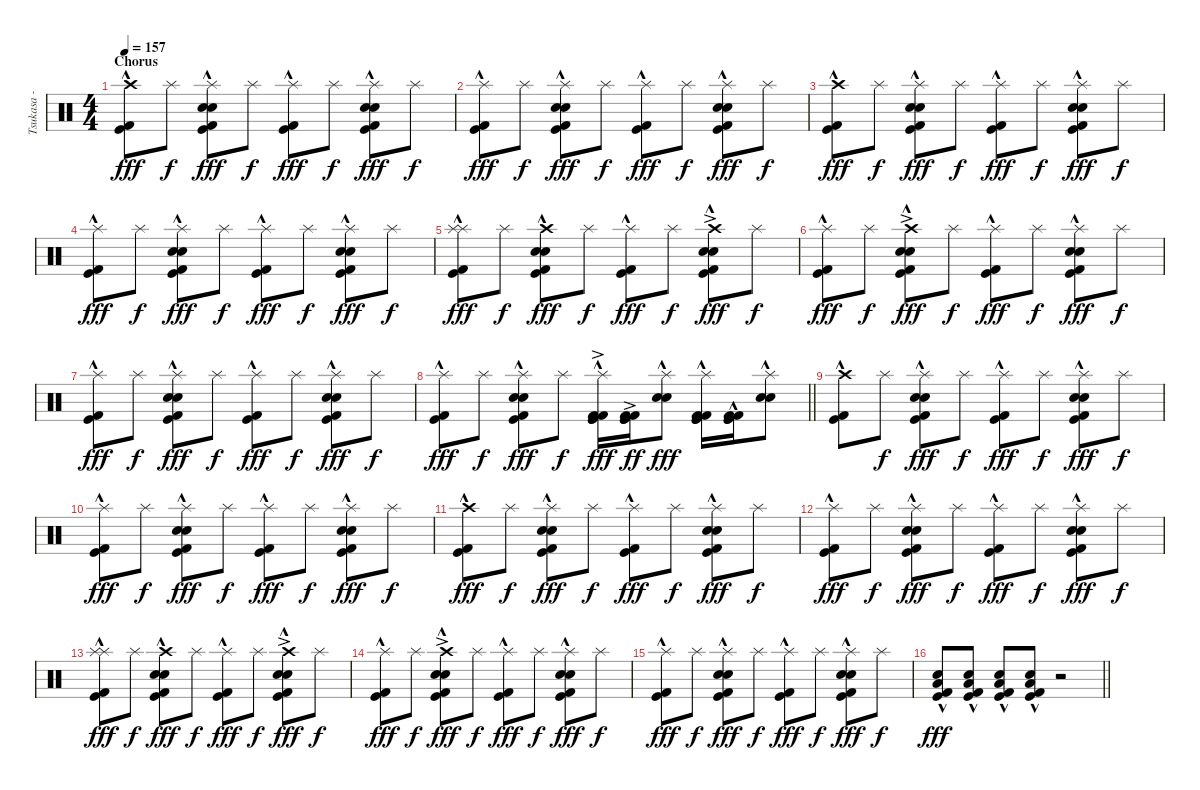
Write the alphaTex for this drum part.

\track ("Tsukasa - Drums" "Tsukasa - ") {instrument percussion}
\staff {score}
\articulation defaults
\ts (4 4)
\section ("" "Chorus")
\tempo 157
\clef neutral
\ks c
("Crash high (hit)" "Kick (hit)"{hac} "Kick (hit) 2"{hac}).8{dy fff} "Splash (hit)".8{dy f} ("Splash (hit)"{hac} "Electric Snare (hit)"{hac} "Snare (hit) 2" "Kick (hit)"{hac} "Kick (hit) 2"{hac}).8{dy fff} "Splash (hit)".8{dy f} ("Splash (hit)"{hac} "Kick (hit)"{hac} "Kick (hit) 2"{hac}).8{dy fff} "Splash (hit)".8{dy f} ("Splash (hit)"{hac} "Electric Snare (hit)"{hac} "Snare (hit) 2" "Kick (hit)"{hac} "Kick (hit) 2"{hac}).8{dy fff} "Splash (hit)".8{dy f} |
("Splash (hit)"{hac} "Kick (hit)"{hac} "Kick (hit) 2"{hac}).8{dy fff} "Splash (hit)".8{dy f} ("Splash (hit)"{hac} "Electric Snare (hit)"{hac} "Snare (hit) 2" "Kick (hit)"{hac} "Kick (hit) 2"{hac}).8{dy fff} "Splash (hit)".8{dy f} ("Splash (hit)"{hac} "Kick (hit)"{hac} "Kick (hit) 2"{hac}).8{dy fff} "Splash (hit)".8{dy f} ("Splash (hit)"{hac} "Electric Snare (hit)"{hac} "Snare (hit) 2" "Kick (hit)"{hac} "Kick (hit) 2"{hac}).8{dy fff} "Splash (hit)".8{dy f} |
("Crash high (hit)" "Kick (hit)"{hac} "Kick (hit) 2"{hac}).8{dy fff} "Splash (hit)".8{dy f} ("Splash (hit)"{hac} "Electric Snare (hit)"{hac} "Snare (hit) 2" "Kick (hit)"{hac} "Kick (hit) 2"{hac}).8{dy fff} "Splash (hit)".8{dy f} ("Splash (hit)"{hac} "Kick (hit)"{hac} "Kick (hit) 2"{hac}).8{dy fff} "Splash (hit)".8{dy f} ("Splash (hit)"{hac} "Electric Snare (hit)"{hac} "Snare (hit) 2" "Kick (hit)"{hac} "Kick (hit) 2"{hac}).8{dy fff} "Splash (hit)".8{dy f} |
("Splash (hit)"{hac} "Kick (hit)"{hac} "Kick (hit) 2"{hac}).8{dy fff} "Splash (hit)".8{dy f} ("Splash (hit)"{hac} "Electric Snare (hit)"{hac} "Snare (hit) 2" "Kick (hit)"{hac} "Kick (hit) 2"{hac}).8{dy fff} "Splash (hit)".8{dy f} ("Splash (hit)"{hac} "Kick (hit)"{hac} "Kick (hit) 2"{hac}).8{dy fff} "Splash (hit)".8{dy f} ("Splash (hit)"{hac} "Electric Snare (hit)"{hac} "Snare (hit) 2" "Kick (hit)"{hac} "Kick (hit) 2"{hac}).8{dy fff} "Splash (hit)".8{dy f} |
("Splash (hit)"{hac} "Splash (hit)"{hac} "Kick (hit)"{hac} "Kick (hit) 2"{hac}).8{dy fff} "Splash (hit)".8{dy f} ("Crash high (hit)"{hac} "Electric Snare (hit)"{hac} "Snare (hit) 2" "Kick (hit)"{hac} "Kick (hit) 2"{hac}).8{dy fff} "Splash (hit)".8{dy f} ("Splash (hit)"{hac} "Kick (hit)"{hac} "Kick (hit) 2"{hac}).8{dy fff} "Splash (hit)".8{dy f} ("Crash high (hit)"{ac} "Electric Snare (hit)"{hac} "Snare (hit) 2" "Kick (hit)"{hac} "Kick (hit) 2"{hac}).8{dy fff} "Splash (hit)".8{dy f} |
("Splash (hit)"{hac} "Kick (hit)"{hac} "Kick (hit) 2"{hac}).8{dy fff} "Splash (hit)".8{dy f} ("Crash high (hit)"{ac} "Electric Snare (hit)"{hac} "Snare (hit) 2" "Kick (hit)"{hac} "Kick (hit) 2"{hac}).8{dy fff} "Splash (hit)".8{dy f} ("Splash (hit)"{hac} "Kick (hit)"{hac} "Kick (hit) 2"{hac}).8{dy fff} "Splash (hit)".8{dy f} ("Splash (hit)"{hac} "Electric Snare (hit)"{hac} "Snare (hit) 2" "Kick (hit)"{hac} "Kick (hit) 2"{hac}).8{dy fff} "Splash (hit)".8{dy f} |
("Splash (hit)"{hac} "Kick (hit)"{hac} "Kick (hit) 2"{hac}).8{dy fff} "Splash (hit)".8{dy f} ("Splash (hit)"{hac} "Electric Snare (hit)"{hac} "Snare (hit) 2" "Kick (hit)"{hac} "Kick (hit) 2"{hac}).8{dy fff} "Splash (hit)".8{dy f} ("Splash (hit)"{hac} "Kick (hit)"{hac} "Kick (hit) 2"{hac}).8{dy fff} "Splash (hit)".8{dy f} ("Splash (hit)"{hac} "Electric Snare (hit)"{hac} "Snare (hit) 2" "Kick (hit)"{hac} "Kick (hit) 2"{hac}).8{dy fff} "Splash (hit)".8{dy f} |
\barLineRight lightlight
("Splash (hit)"{hac} "Kick (hit)"{hac} "Kick (hit) 2"{hac}).8{dy fff} "Splash (hit)".8{dy f} ("Splash (hit)"{hac} "Electric Snare (hit)"{hac} "Snare (hit) 2" "Kick (hit)"{hac} "Kick (hit) 2"{hac}).8{dy fff} "Splash (hit)".8{dy f} ("Splash (hit)"{hac} "Kick (hit)"{ac} "Kick (hit) 2"{ac} "Kick (hit)"{hac} "Kick (hit) 2"{hac}).16{dy fff} ("Kick (hit)"{ac} "Kick (hit) 2"{ac} "Kick (hit)" "Kick (hit) 2").16{dy ff} ("Splash (hit)" "Electric Snare (hit)"{hac} "Snare (hit) 2"{hac}).8{dy fff} ("Splash (hit)"{hac} "Kick (hit)" "Kick (hit) 2" "Kick (hit)"{hac} "Kick (hit) 2"{hac}).16 ("Kick (hit)" "Kick (hit) 2" "Kick (hit)"{hac} "Kick (hit) 2"{hac}).16 ("Splash (hit)" "Electric Snare (hit)"{hac} "Snare (hit) 2").8 |
\section ("" "")
("Crash high (hit)" "Kick (hit)"{hac} "Kick (hit) 2"{hac}).8 "Splash (hit)".8{dy f} ("Splash (hit)"{hac} "Electric Snare (hit)"{hac} "Snare (hit) 2" "Kick (hit)"{hac} "Kick (hit) 2"{hac}).8{dy fff} "Splash (hit)".8{dy f} ("Splash (hit)"{hac} "Kick (hit)"{hac} "Kick (hit) 2"{hac}).8{dy fff} "Splash (hit)".8{dy f} ("Splash (hit)"{hac} "Electric Snare (hit)"{hac} "Snare (hit) 2" "Kick (hit)"{hac} "Kick (hit) 2"{hac}).8{dy fff} "Splash (hit)".8{dy f} |
("Splash (hit)"{hac} "Kick (hit)"{hac} "Kick (hit) 2"{hac}).8{dy fff} "Splash (hit)".8{dy f} ("Splash (hit)"{hac} "Electric Snare (hit)"{hac} "Snare (hit) 2" "Kick (hit)"{hac} "Kick (hit) 2"{hac}).8{dy fff} "Splash (hit)".8{dy f} ("Splash (hit)"{hac} "Kick (hit)"{hac} "Kick (hit) 2"{hac}).8{dy fff} "Splash (hit)".8{dy f} ("Splash (hit)"{hac} "Electric Snare (hit)"{hac} "Snare (hit) 2" "Kick (hit)"{hac} "Kick (hit) 2"{hac}).8{dy fff} "Splash (hit)".8{dy f} |
("Crash high (hit)" "Kick (hit)"{hac} "Kick (hit) 2"{hac}).8{dy fff} "Splash (hit)".8{dy f} ("Splash (hit)"{hac} "Electric Snare (hit)"{hac} "Snare (hit) 2" "Kick (hit)"{hac} "Kick (hit) 2"{hac}).8{dy fff} "Splash (hit)".8{dy f} ("Splash (hit)"{hac} "Kick (hit)"{hac} "Kick (hit) 2"{hac}).8{dy fff} "Splash (hit)".8{dy f} ("Splash (hit)"{hac} "Electric Snare (hit)"{hac} "Snare (hit) 2" "Kick (hit)"{hac} "Kick (hit) 2"{hac}).8{dy fff} "Splash (hit)".8{dy f} |
("Splash (hit)"{hac} "Kick (hit)"{hac} "Kick (hit) 2"{hac}).8{dy fff} "Splash (hit)".8{dy f} ("Splash (hit)"{hac} "Electric Snare (hit)"{hac} "Snare (hit) 2" "Kick (hit)"{hac} "Kick (hit) 2"{hac}).8{dy fff} "Splash (hit)".8{dy f} ("Splash (hit)"{hac} "Kick (hit)"{hac} "Kick (hit) 2"{hac}).8{dy fff} "Splash (hit)".8{dy f} ("Splash (hit)"{hac} "Electric Snare (hit)"{hac} "Snare (hit) 2" "Kick (hit)"{hac} "Kick (hit) 2"{hac}).8{dy fff} "Splash (hit)".8{dy f} |
("Splash (hit)"{hac} "Splash (hit)"{hac} "Kick (hit)"{hac} "Kick (hit) 2"{hac}).8{dy fff} "Splash (hit)".8{dy f} ("Crash high (hit)"{hac} "Electric Snare (hit)"{hac} "Snare (hit) 2" "Kick (hit)"{hac} "Kick (hit) 2"{hac}).8{dy fff} "Splash (hit)".8{dy f} ("Splash (hit)"{hac} "Kick (hit)"{hac} "Kick (hit) 2"{hac}).8{dy fff} "Splash (hit)".8{dy f} ("Crash high (hit)"{ac} "Electric Snare (hit)"{hac} "Snare (hit) 2" "Kick (hit)"{hac} "Kick (hit) 2"{hac}).8{dy fff} "Splash (hit)".8{dy f} |
("Splash (hit)"{hac} "Kick (hit)"{hac} "Kick (hit) 2"{hac}).8{dy fff} "Splash (hit)".8{dy f} ("Crash high (hit)"{ac} "Electric Snare (hit)"{hac} "Snare (hit) 2" "Kick (hit)"{hac} "Kick (hit) 2"{hac}).8{dy fff} "Splash (hit)".8{dy f} ("Splash (hit)"{hac} "Kick (hit)"{hac} "Kick (hit) 2"{hac}).8{dy fff} "Splash (hit)".8{dy f} ("Splash (hit)"{hac} "Electric Snare (hit)"{hac} "Snare (hit) 2" "Kick (hit)"{hac} "Kick (hit) 2"{hac}).8{dy fff} "Splash (hit)".8{dy f} |
("Splash (hit)"{hac} "Kick (hit)"{hac} "Kick (hit) 2"{hac}).8{dy fff} "Splash (hit)".8{dy f} ("Splash (hit)"{hac} "Electric Snare (hit)"{hac} "Snare (hit) 2" "Kick (hit)"{hac} "Kick (hit) 2"{hac}).8{dy fff} "Splash (hit)".8{dy f} ("Splash (hit)"{hac} "Kick (hit)"{hac} "Kick (hit) 2"{hac}).8{dy fff} "Splash (hit)".8{dy f} ("Splash (hit)"{hac} "Electric Snare (hit)"{hac} "Snare (hit) 2" "Kick (hit)"{hac} "Kick (hit) 2"{hac}).8{dy fff} "Splash (hit)".8{dy f} |
\barLineRight lightlight
("Electric Snare (hit)" "Low Tom (hit)" "Kick (hit)"{hac} "Kick (hit) 2"{hac}).8{dy fff} ("Electric Snare (hit)" "Low Tom (hit)" "Kick (hit)"{hac} "Kick (hit) 2"{hac}).8 ("Electric Snare (hit)" "Low Tom (hit)" "Kick (hit)"{hac} "Kick (hit) 2"{hac}).8 ("Electric Snare (hit)" "Low Tom (hit)" "Kick (hit)"{hac} "Kick (hit) 2"{hac}).8 r.2
